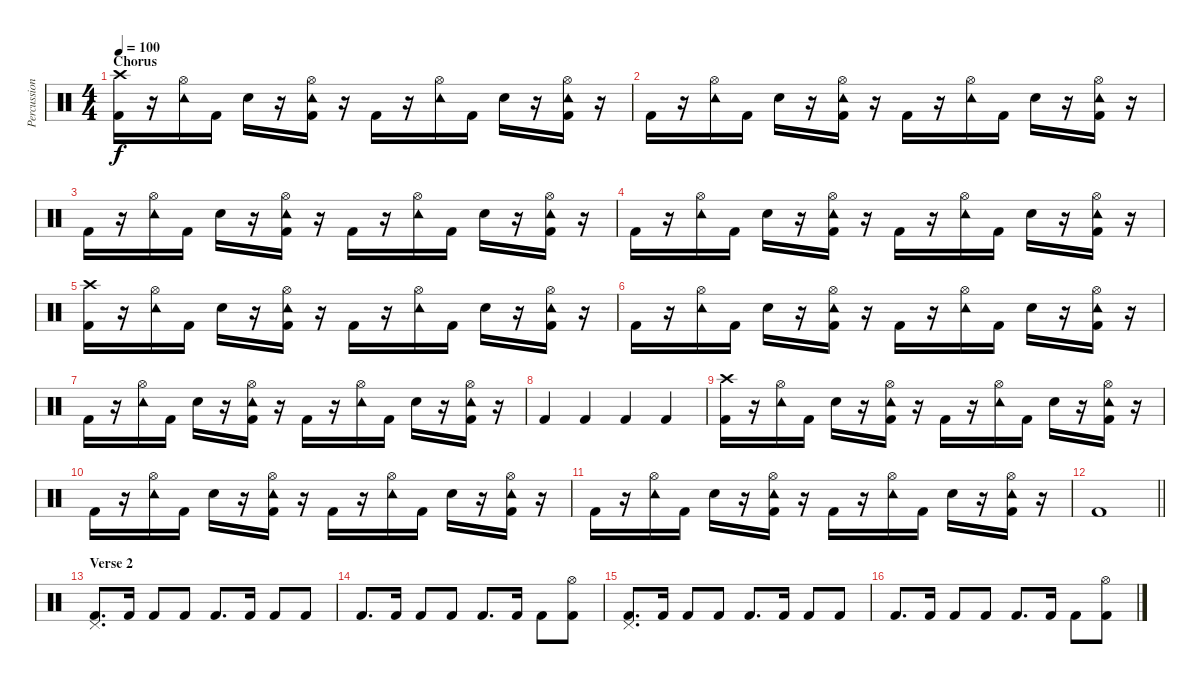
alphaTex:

\track ("Percussion" "Percussion") {instrument percussion}
\staff {score}
\articulation defaults
\ts (4 4)
\section ("" "Chorus")
\tempo 100
\clef neutral
\ks c
("Crash high (hit)" "Kick (hit) 2").16{dy f} r.16 ("Tambourine (hit)" "Hi-Hat (open)").16 "Kick (hit) 2".16 "Electric Snare (hit)".16 r.16 ("Tambourine (hit)" "Hi-Hat (open)" "Kick (hit) 2").16 r.16 "Kick (hit) 2".16 r.16 ("Tambourine (hit)" "Hi-Hat (open)").16 "Kick (hit) 2".16 "Electric Snare (hit)".16 r.16 ("Tambourine (hit)" "Hi-Hat (open)" "Kick (hit) 2").16 r.16 |
"Kick (hit) 2".16 r.16 ("Tambourine (hit)" "Hi-Hat (open)").16 "Kick (hit) 2".16 "Electric Snare (hit)".16 r.16 ("Tambourine (hit)" "Hi-Hat (open)" "Kick (hit) 2").16 r.16 "Kick (hit) 2".16 r.16 ("Tambourine (hit)" "Hi-Hat (open)").16 "Kick (hit) 2".16 "Electric Snare (hit)".16 r.16 ("Tambourine (hit)" "Hi-Hat (open)" "Kick (hit) 2").16 r.16 |
"Kick (hit) 2".16 r.16 ("Tambourine (hit)" "Hi-Hat (open)").16 "Kick (hit) 2".16 "Electric Snare (hit)".16 r.16 ("Tambourine (hit)" "Hi-Hat (open)" "Kick (hit) 2").16 r.16 "Kick (hit) 2".16 r.16 ("Tambourine (hit)" "Hi-Hat (open)").16 "Kick (hit) 2".16 "Electric Snare (hit)".16 r.16 ("Tambourine (hit)" "Hi-Hat (open)" "Kick (hit) 2").16 r.16 |
"Kick (hit) 2".16 r.16 ("Tambourine (hit)" "Hi-Hat (open)").16 "Kick (hit) 2".16 "Electric Snare (hit)".16 r.16 ("Tambourine (hit)" "Hi-Hat (open)" "Kick (hit) 2").16 r.16 "Kick (hit) 2".16 r.16 ("Tambourine (hit)" "Hi-Hat (open)").16 "Kick (hit) 2".16 "Electric Snare (hit)".16 r.16 ("Tambourine (hit)" "Hi-Hat (open)" "Kick (hit) 2").16 r.16 |
("Crash high (hit)" "Kick (hit) 2").16 r.16 ("Tambourine (hit)" "Hi-Hat (open)").16 "Kick (hit) 2".16 "Electric Snare (hit)".16 r.16 ("Tambourine (hit)" "Hi-Hat (open)" "Kick (hit) 2").16 r.16 "Kick (hit) 2".16 r.16 ("Tambourine (hit)" "Hi-Hat (open)").16 "Kick (hit) 2".16 "Electric Snare (hit)".16 r.16 ("Tambourine (hit)" "Hi-Hat (open)" "Kick (hit) 2").16 r.16 |
"Kick (hit) 2".16 r.16 ("Tambourine (hit)" "Hi-Hat (open)").16 "Kick (hit) 2".16 "Electric Snare (hit)".16 r.16 ("Tambourine (hit)" "Hi-Hat (open)" "Kick (hit) 2").16 r.16 "Kick (hit) 2".16 r.16 ("Tambourine (hit)" "Hi-Hat (open)").16 "Kick (hit) 2".16 "Electric Snare (hit)".16 r.16 ("Tambourine (hit)" "Hi-Hat (open)" "Kick (hit) 2").16 r.16 |
"Kick (hit) 2".16 r.16 ("Tambourine (hit)" "Hi-Hat (open)").16 "Kick (hit) 2".16 "Electric Snare (hit)".16 r.16 ("Tambourine (hit)" "Hi-Hat (open)" "Kick (hit) 2").16 r.16 "Kick (hit) 2".16 r.16 ("Tambourine (hit)" "Hi-Hat (open)").16 "Kick (hit) 2".16 "Electric Snare (hit)".16 r.16 ("Tambourine (hit)" "Hi-Hat (open)" "Kick (hit) 2").16 r.16 |
"Kick (hit) 2".4 "Kick (hit) 2".4 "Kick (hit) 2".4 "Kick (hit) 2".4 |
("Crash high (hit)" "Kick (hit) 2").16 r.16 ("Tambourine (hit)" "Hi-Hat (open)").16 "Kick (hit) 2".16 "Electric Snare (hit)".16 r.16 ("Tambourine (hit)" "Hi-Hat (open)" "Kick (hit) 2").16 r.16 "Kick (hit) 2".16 r.16 ("Tambourine (hit)" "Hi-Hat (open)").16 "Kick (hit) 2".16 "Electric Snare (hit)".16 r.16 ("Tambourine (hit)" "Hi-Hat (open)" "Kick (hit) 2").16 r.16 |
"Kick (hit) 2".16 r.16 ("Tambourine (hit)" "Hi-Hat (open)").16 "Kick (hit) 2".16 "Electric Snare (hit)".16 r.16 ("Tambourine (hit)" "Hi-Hat (open)" "Kick (hit) 2").16 r.16 "Kick (hit) 2".16 r.16 ("Tambourine (hit)" "Hi-Hat (open)").16 "Kick (hit) 2".16 "Electric Snare (hit)".16 r.16 ("Tambourine (hit)" "Hi-Hat (open)" "Kick (hit) 2").16 r.16 |
"Kick (hit) 2".16 r.16 ("Tambourine (hit)" "Hi-Hat (open)").16 "Kick (hit) 2".16 "Electric Snare (hit)".16 r.16 ("Tambourine (hit)" "Hi-Hat (open)" "Kick (hit) 2").16 r.16 "Kick (hit) 2".16 r.16 ("Tambourine (hit)" "Hi-Hat (open)").16 "Kick (hit) 2".16 "Electric Snare (hit)".16 r.16 ("Tambourine (hit)" "Hi-Hat (open)" "Kick (hit) 2").16 r.16 |
\barLineRight lightlight "Kick (hit) 2".1
|
\section ("" "Verse 2")
("Pedal Hi-Hat (hit)" "Kick (hit) 2").8{d} "Kick (hit) 2".16 "Kick (hit) 2".8 "Kick (hit) 2".8 "Kick (hit) 2".8{d} "Kick (hit) 2".16 "Kick (hit) 2".8 "Kick (hit) 2".8 |
"Kick (hit) 2".8{d} "Kick (hit) 2".16 "Kick (hit) 2".8 "Kick (hit) 2".8 "Kick (hit) 2".8{d} "Kick (hit) 2".16 "Kick (hit) 2".8 ("Hi-Hat (open)" "Kick (hit) 2").8 |
("Pedal Hi-Hat (hit)" "Kick (hit) 2").8{d} "Kick (hit) 2".16 "Kick (hit) 2".8 "Kick (hit) 2".8 "Kick (hit) 2".8{d} "Kick (hit) 2".16 "Kick (hit) 2".8 "Kick (hit) 2".8 |
"Kick (hit) 2".8{d} "Kick (hit) 2".16 "Kick (hit) 2".8 "Kick (hit) 2".8 "Kick (hit) 2".8{d} "Kick (hit) 2".16 "Kick (hit) 2".8 ("Hi-Hat (open)" "Kick (hit) 2").8
